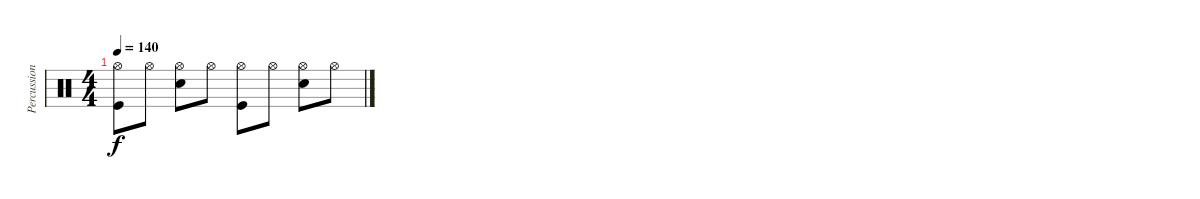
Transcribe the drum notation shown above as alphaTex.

\track ("Percussion" "Percussion") {instrument percussion}
\staff {score}
\articulation defaults
\ts (4 4)
\tempo 140
\clef neutral
\ks c
("Hi-Hat (open)" "Kick (hit)").8{dy f} "Hi-Hat (open)".8 ("Hi-Hat (open)" "Snare (hit) 2").8 "Hi-Hat (open)".8 ("Hi-Hat (open)" "Kick (hit)").8 "Hi-Hat (open)".8 ("Hi-Hat (open)" "Snare (hit) 2").8 "Hi-Hat (open)".8
